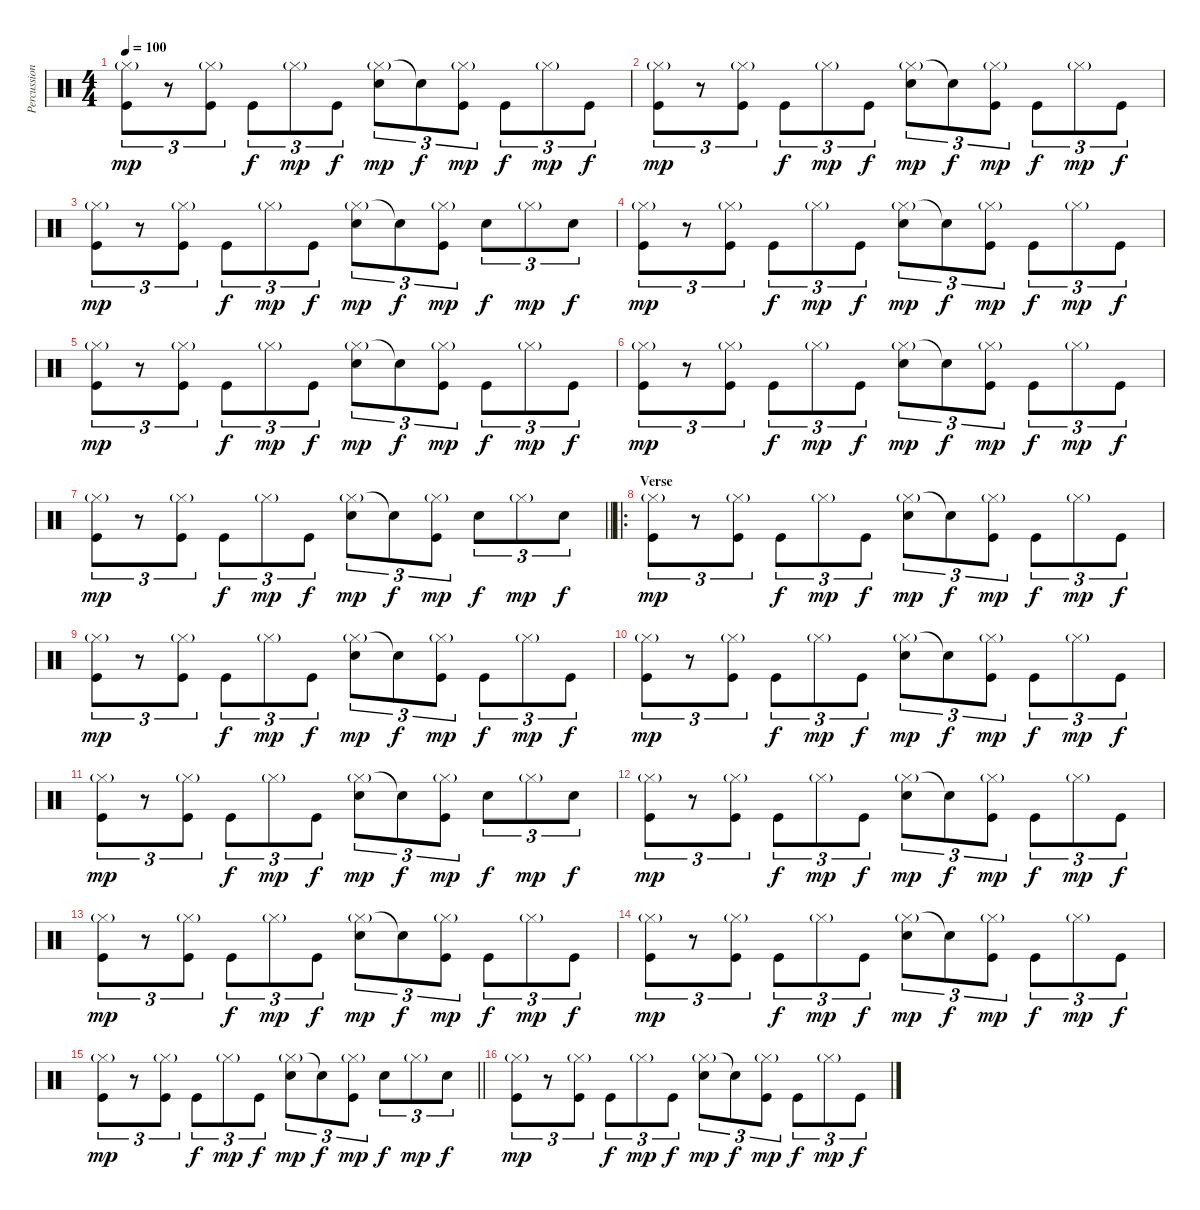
\track ("Percussions" "Percussion") {instrument percussion}
\staff {score}
\articulation defaults
\ts (4 4)
\tempo 100
\clef neutral
\ks c
("Hi-Hat (closed)"{g} "Kick (hit)").8{tu (3 2) dy mp} r.8{tu (3 2)} ("Hi-Hat (closed)"{g} "Kick (hit)").8{tu (3 2)} "Kick (hit)".8{tu (3 2) dy f} "Hi-Hat (closed)"{g}.8{tu (3 2) dy mp} "Kick (hit)".8{tu (3 2) dy f} ("Hi-Hat (closed)"{g} "Electric Snare (hit)").8{tu (3 2) dy mp} "Snare (hit)"{t}.8{tu (3 2) dy f} ("Hi-Hat (closed)"{g} "Kick (hit)").8{tu (3 2) dy mp} "Kick (hit)".8{tu (3 2) dy f} "Hi-Hat (closed)"{g}.8{tu (3 2) dy mp} "Kick (hit)".8{tu (3 2) dy f} |
("Hi-Hat (closed)"{g} "Kick (hit)").8{tu (3 2) dy mp} r.8{tu (3 2)} ("Hi-Hat (closed)"{g} "Kick (hit)").8{tu (3 2)} "Kick (hit)".8{tu (3 2) dy f} "Hi-Hat (closed)"{g}.8{tu (3 2) dy mp} "Kick (hit)".8{tu (3 2) dy f} ("Hi-Hat (closed)"{g} "Electric Snare (hit)").8{tu (3 2) dy mp} "Snare (hit)"{t}.8{tu (3 2) dy f} ("Hi-Hat (closed)"{g} "Kick (hit)").8{tu (3 2) dy mp} "Kick (hit)".8{tu (3 2) dy f} "Hi-Hat (closed)"{g}.8{tu (3 2) dy mp} "Kick (hit)".8{tu (3 2) dy f} |
("Hi-Hat (closed)"{g} "Kick (hit)").8{tu (3 2) dy mp} r.8{tu (3 2)} ("Hi-Hat (closed)"{g} "Kick (hit)").8{tu (3 2)} "Kick (hit)".8{tu (3 2) dy f} "Hi-Hat (closed)"{g}.8{tu (3 2) dy mp} "Kick (hit)".8{tu (3 2) dy f} ("Hi-Hat (closed)"{g} "Electric Snare (hit)").8{tu (3 2) dy mp} "Snare (hit)"{t}.8{tu (3 2) dy f} ("Hi-Hat (closed)"{g} "Kick (hit)").8{tu (3 2) dy mp} "Electric Snare (hit)".8{tu (3 2) dy f} "Hi-Hat (closed)"{g}.8{tu (3 2) dy mp} "Electric Snare (hit)".8{tu (3 2) dy f} |
("Hi-Hat (closed)"{g} "Kick (hit)").8{tu (3 2) dy mp} r.8{tu (3 2)} ("Hi-Hat (closed)"{g} "Kick (hit)").8{tu (3 2)} "Kick (hit)".8{tu (3 2) dy f} "Hi-Hat (closed)"{g}.8{tu (3 2) dy mp} "Kick (hit)".8{tu (3 2) dy f} ("Hi-Hat (closed)"{g} "Electric Snare (hit)").8{tu (3 2) dy mp} "Snare (hit)"{t}.8{tu (3 2) dy f} ("Hi-Hat (closed)"{g} "Kick (hit)").8{tu (3 2) dy mp} "Kick (hit)".8{tu (3 2) dy f} "Hi-Hat (closed)"{g}.8{tu (3 2) dy mp} "Kick (hit)".8{tu (3 2) dy f} |
("Hi-Hat (closed)"{g} "Kick (hit)").8{tu (3 2) dy mp} r.8{tu (3 2)} ("Hi-Hat (closed)"{g} "Kick (hit)").8{tu (3 2)} "Kick (hit)".8{tu (3 2) dy f} "Hi-Hat (closed)"{g}.8{tu (3 2) dy mp} "Kick (hit)".8{tu (3 2) dy f} ("Hi-Hat (closed)"{g} "Electric Snare (hit)").8{tu (3 2) dy mp} "Snare (hit)"{t}.8{tu (3 2) dy f} ("Hi-Hat (closed)"{g} "Kick (hit)").8{tu (3 2) dy mp} "Kick (hit)".8{tu (3 2) dy f} "Hi-Hat (closed)"{g}.8{tu (3 2) dy mp} "Kick (hit)".8{tu (3 2) dy f} |
("Hi-Hat (closed)"{g} "Kick (hit)").8{tu (3 2) dy mp} r.8{tu (3 2)} ("Hi-Hat (closed)"{g} "Kick (hit)").8{tu (3 2)} "Kick (hit)".8{tu (3 2) dy f} "Hi-Hat (closed)"{g}.8{tu (3 2) dy mp} "Kick (hit)".8{tu (3 2) dy f} ("Hi-Hat (closed)"{g} "Electric Snare (hit)").8{tu (3 2) dy mp} "Snare (hit)"{t}.8{tu (3 2) dy f} ("Hi-Hat (closed)"{g} "Kick (hit)").8{tu (3 2) dy mp} "Kick (hit)".8{tu (3 2) dy f} "Hi-Hat (closed)"{g}.8{tu (3 2) dy mp} "Kick (hit)".8{tu (3 2) dy f} |
\barLineRight lightlight
("Hi-Hat (closed)"{g} "Kick (hit)").8{tu (3 2) dy mp} r.8{tu (3 2)} ("Hi-Hat (closed)"{g} "Kick (hit)").8{tu (3 2)} "Kick (hit)".8{tu (3 2) dy f} "Hi-Hat (closed)"{g}.8{tu (3 2) dy mp} "Kick (hit)".8{tu (3 2) dy f} ("Hi-Hat (closed)"{g} "Electric Snare (hit)").8{tu (3 2) dy mp} "Snare (hit)"{t}.8{tu (3 2) dy f} ("Hi-Hat (closed)"{g} "Kick (hit)").8{tu (3 2) dy mp} "Electric Snare (hit)".8{tu (3 2) dy f} "Hi-Hat (closed)"{g}.8{tu (3 2) dy mp} "Electric Snare (hit)".8{tu (3 2) dy f} |
\ro
\section ("" "Verse")
("Hi-Hat (closed)"{g} "Kick (hit)").8{tu (3 2) dy mp} r.8{tu (3 2)} ("Hi-Hat (closed)"{g} "Kick (hit)").8{tu (3 2)} "Kick (hit)".8{tu (3 2) dy f} "Hi-Hat (closed)"{g}.8{tu (3 2) dy mp} "Kick (hit)".8{tu (3 2) dy f} ("Hi-Hat (closed)"{g} "Electric Snare (hit)").8{tu (3 2) dy mp} "Snare (hit)"{t}.8{tu (3 2) dy f} ("Hi-Hat (closed)"{g} "Kick (hit)").8{tu (3 2) dy mp} "Kick (hit)".8{tu (3 2) dy f} "Hi-Hat (closed)"{g}.8{tu (3 2) dy mp} "Kick (hit)".8{tu (3 2) dy f} |
("Hi-Hat (closed)"{g} "Kick (hit)").8{tu (3 2) dy mp} r.8{tu (3 2)} ("Hi-Hat (closed)"{g} "Kick (hit)").8{tu (3 2)} "Kick (hit)".8{tu (3 2) dy f} "Hi-Hat (closed)"{g}.8{tu (3 2) dy mp} "Kick (hit)".8{tu (3 2) dy f} ("Hi-Hat (closed)"{g} "Electric Snare (hit)").8{tu (3 2) dy mp} "Snare (hit)"{t}.8{tu (3 2) dy f} ("Hi-Hat (closed)"{g} "Kick (hit)").8{tu (3 2) dy mp} "Kick (hit)".8{tu (3 2) dy f} "Hi-Hat (closed)"{g}.8{tu (3 2) dy mp} "Kick (hit)".8{tu (3 2) dy f} |
("Hi-Hat (closed)"{g} "Kick (hit)").8{tu (3 2) dy mp} r.8{tu (3 2)} ("Hi-Hat (closed)"{g} "Kick (hit)").8{tu (3 2)} "Kick (hit)".8{tu (3 2) dy f} "Hi-Hat (closed)"{g}.8{tu (3 2) dy mp} "Kick (hit)".8{tu (3 2) dy f} ("Hi-Hat (closed)"{g} "Electric Snare (hit)").8{tu (3 2) dy mp} "Snare (hit)"{t}.8{tu (3 2) dy f} ("Hi-Hat (closed)"{g} "Kick (hit)").8{tu (3 2) dy mp} "Kick (hit)".8{tu (3 2) dy f} "Hi-Hat (closed)"{g}.8{tu (3 2) dy mp} "Kick (hit)".8{tu (3 2) dy f} |
("Hi-Hat (closed)"{g} "Kick (hit)").8{tu (3 2) dy mp} r.8{tu (3 2)} ("Hi-Hat (closed)"{g} "Kick (hit)").8{tu (3 2)} "Kick (hit)".8{tu (3 2) dy f} "Hi-Hat (closed)"{g}.8{tu (3 2) dy mp} "Kick (hit)".8{tu (3 2) dy f} ("Hi-Hat (closed)"{g} "Electric Snare (hit)").8{tu (3 2) dy mp} "Snare (hit)"{t}.8{tu (3 2) dy f} ("Hi-Hat (closed)"{g} "Kick (hit)").8{tu (3 2) dy mp} "Electric Snare (hit)".8{tu (3 2) dy f} "Hi-Hat (closed)"{g}.8{tu (3 2) dy mp} "Electric Snare (hit)".8{tu (3 2) dy f} |
("Hi-Hat (closed)"{g} "Kick (hit)").8{tu (3 2) dy mp} r.8{tu (3 2)} ("Hi-Hat (closed)"{g} "Kick (hit)").8{tu (3 2)} "Kick (hit)".8{tu (3 2) dy f} "Hi-Hat (closed)"{g}.8{tu (3 2) dy mp} "Kick (hit)".8{tu (3 2) dy f} ("Hi-Hat (closed)"{g} "Electric Snare (hit)").8{tu (3 2) dy mp} "Snare (hit)"{t}.8{tu (3 2) dy f} ("Hi-Hat (closed)"{g} "Kick (hit)").8{tu (3 2) dy mp} "Kick (hit)".8{tu (3 2) dy f} "Hi-Hat (closed)"{g}.8{tu (3 2) dy mp} "Kick (hit)".8{tu (3 2) dy f} |
("Hi-Hat (closed)"{g} "Kick (hit)").8{tu (3 2) dy mp} r.8{tu (3 2)} ("Hi-Hat (closed)"{g} "Kick (hit)").8{tu (3 2)} "Kick (hit)".8{tu (3 2) dy f} "Hi-Hat (closed)"{g}.8{tu (3 2) dy mp} "Kick (hit)".8{tu (3 2) dy f} ("Hi-Hat (closed)"{g} "Electric Snare (hit)").8{tu (3 2) dy mp} "Snare (hit)"{t}.8{tu (3 2) dy f} ("Hi-Hat (closed)"{g} "Kick (hit)").8{tu (3 2) dy mp} "Kick (hit)".8{tu (3 2) dy f} "Hi-Hat (closed)"{g}.8{tu (3 2) dy mp} "Kick (hit)".8{tu (3 2) dy f} |
("Hi-Hat (closed)"{g} "Kick (hit)").8{tu (3 2) dy mp} r.8{tu (3 2)} ("Hi-Hat (closed)"{g} "Kick (hit)").8{tu (3 2)} "Kick (hit)".8{tu (3 2) dy f} "Hi-Hat (closed)"{g}.8{tu (3 2) dy mp} "Kick (hit)".8{tu (3 2) dy f} ("Hi-Hat (closed)"{g} "Electric Snare (hit)").8{tu (3 2) dy mp} "Snare (hit)"{t}.8{tu (3 2) dy f} ("Hi-Hat (closed)"{g} "Kick (hit)").8{tu (3 2) dy mp} "Kick (hit)".8{tu (3 2) dy f} "Hi-Hat (closed)"{g}.8{tu (3 2) dy mp} "Kick (hit)".8{tu (3 2) dy f} |
\barLineRight lightlight
("Hi-Hat (closed)"{g} "Kick (hit)").8{tu (3 2) dy mp} r.8{tu (3 2)} ("Hi-Hat (closed)"{g} "Kick (hit)").8{tu (3 2)} "Kick (hit)".8{tu (3 2) dy f} "Hi-Hat (closed)"{g}.8{tu (3 2) dy mp} "Kick (hit)".8{tu (3 2) dy f} ("Hi-Hat (closed)"{g} "Electric Snare (hit)").8{tu (3 2) dy mp} "Snare (hit)"{t}.8{tu (3 2) dy f} ("Hi-Hat (closed)"{g} "Kick (hit)").8{tu (3 2) dy mp} "Electric Snare (hit)".8{tu (3 2) dy f} "Hi-Hat (closed)"{g}.8{tu (3 2) dy mp} "Electric Snare (hit)".8{tu (3 2) dy f} |
("Hi-Hat (closed)"{g} "Kick (hit)").8{tu (3 2) dy mp} r.8{tu (3 2)} ("Hi-Hat (closed)"{g} "Kick (hit)").8{tu (3 2)} "Kick (hit)".8{tu (3 2) dy f} "Hi-Hat (closed)"{g}.8{tu (3 2) dy mp} "Kick (hit)".8{tu (3 2) dy f} ("Hi-Hat (closed)"{g} "Electric Snare (hit)").8{tu (3 2) dy mp} "Snare (hit)"{t}.8{tu (3 2) dy f} ("Hi-Hat (closed)"{g} "Kick (hit)").8{tu (3 2) dy mp} "Kick (hit)".8{tu (3 2) dy f} "Hi-Hat (closed)"{g}.8{tu (3 2) dy mp} "Kick (hit)".8{tu (3 2) dy f}
